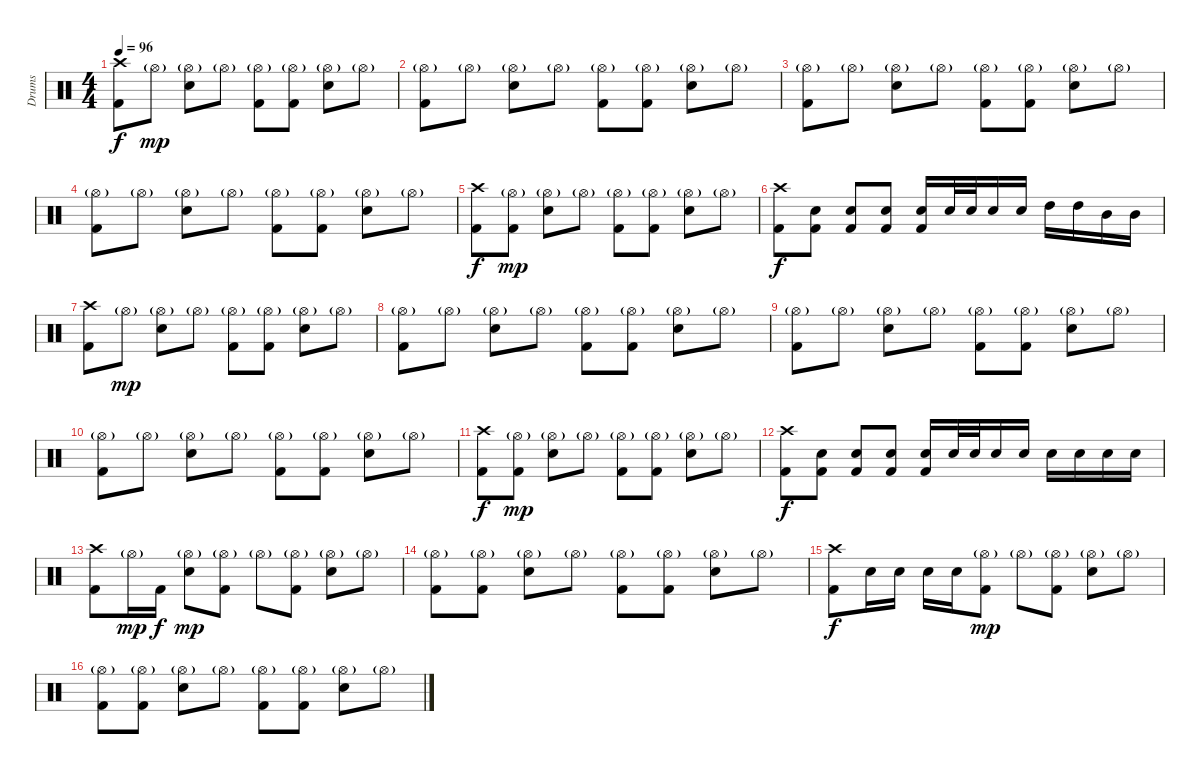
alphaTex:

\track ("Drums" "Drums") {instrument percussion}
\staff {score}
\articulation defaults
\ts (4 4)
\tempo 96
\clef neutral
\ks c
("Crash high (hit)" "Kick (hit) 2").8{dy f} "Hi-Hat (open)"{g}.8{dy mp} ("Hi-Hat (open)"{g} "Electric Snare (hit)").8 "Hi-Hat (open)"{g}.8 ("Hi-Hat (open)"{g} "Kick (hit) 2").8 ("Hi-Hat (open)"{g} "Kick (hit) 2").8 ("Hi-Hat (open)"{g} "Electric Snare (hit)").8 "Hi-Hat (open)"{g}.8 |
("Hi-Hat (open)"{g} "Kick (hit) 2").8 "Hi-Hat (open)"{g}.8 ("Hi-Hat (open)"{g} "Electric Snare (hit)").8 "Hi-Hat (open)"{g}.8 ("Hi-Hat (open)"{g} "Kick (hit) 2").8 ("Hi-Hat (open)"{g} "Kick (hit) 2").8 ("Hi-Hat (open)"{g} "Electric Snare (hit)").8 "Hi-Hat (open)"{g}.8 |
("Hi-Hat (open)"{g} "Kick (hit) 2").8 "Hi-Hat (open)"{g}.8 ("Hi-Hat (open)"{g} "Electric Snare (hit)").8 "Hi-Hat (open)"{g}.8 ("Hi-Hat (open)"{g} "Kick (hit) 2").8 ("Hi-Hat (open)"{g} "Kick (hit) 2").8 ("Hi-Hat (open)"{g} "Electric Snare (hit)").8 "Hi-Hat (open)"{g}.8 |
("Hi-Hat (open)"{g} "Kick (hit) 2").8 "Hi-Hat (open)"{g}.8 ("Hi-Hat (open)"{g} "Electric Snare (hit)").8 "Hi-Hat (open)"{g}.8 ("Hi-Hat (open)"{g} "Kick (hit) 2").8 ("Hi-Hat (open)"{g} "Kick (hit) 2").8 ("Hi-Hat (open)"{g} "Electric Snare (hit)").8 "Hi-Hat (open)"{g}.8 |
("Crash high (hit)" "Kick (hit) 2").8{dy f} ("Hi-Hat (open)"{g} "Kick (hit) 2").8{dy mp} ("Hi-Hat (open)"{g} "Electric Snare (hit)").8 "Hi-Hat (open)"{g}.8 ("Hi-Hat (open)"{g} "Kick (hit) 2").8 ("Hi-Hat (open)"{g} "Kick (hit) 2").8 ("Hi-Hat (open)"{g} "Electric Snare (hit)").8 "Hi-Hat (open)"{g}.8 |
("Crash high (hit)" "Kick (hit) 2").8{dy f} ("Electric Snare (hit)" "Kick (hit) 2").8 ("Electric Snare (hit)" "Kick (hit) 2").8 ("Electric Snare (hit)" "Kick (hit) 2").8 ("Electric Snare (hit)" "Kick (hit) 2").16 "Electric Snare (hit)".32 "Electric Snare (hit)".32 "Electric Snare (hit)".16 "Electric Snare (hit)".16 "High Tom (hit)".16 "High Tom (hit)".16 "Mid Tom (hit)".16 "Mid Tom (hit)".16 |
("Crash high (hit)" "Kick (hit) 2").8 "Hi-Hat (open)"{g}.8{dy mp} ("Hi-Hat (open)"{g} "Electric Snare (hit)").8 "Hi-Hat (open)"{g}.8 ("Hi-Hat (open)"{g} "Kick (hit) 2").8 ("Hi-Hat (open)"{g} "Kick (hit) 2").8 ("Hi-Hat (open)"{g} "Electric Snare (hit)").8 "Hi-Hat (open)"{g}.8 |
("Hi-Hat (open)"{g} "Kick (hit) 2").8 "Hi-Hat (open)"{g}.8 ("Hi-Hat (open)"{g} "Electric Snare (hit)").8 "Hi-Hat (open)"{g}.8 ("Hi-Hat (open)"{g} "Kick (hit) 2").8 ("Hi-Hat (open)"{g} "Kick (hit) 2").8 ("Hi-Hat (open)"{g} "Electric Snare (hit)").8 "Hi-Hat (open)"{g}.8 |
("Hi-Hat (open)"{g} "Kick (hit) 2").8 "Hi-Hat (open)"{g}.8 ("Hi-Hat (open)"{g} "Electric Snare (hit)").8 "Hi-Hat (open)"{g}.8 ("Hi-Hat (open)"{g} "Kick (hit) 2").8 ("Hi-Hat (open)"{g} "Kick (hit) 2").8 ("Hi-Hat (open)"{g} "Electric Snare (hit)").8 "Hi-Hat (open)"{g}.8 |
("Hi-Hat (open)"{g} "Kick (hit) 2").8 "Hi-Hat (open)"{g}.8 ("Hi-Hat (open)"{g} "Electric Snare (hit)").8 "Hi-Hat (open)"{g}.8 ("Hi-Hat (open)"{g} "Kick (hit) 2").8 ("Hi-Hat (open)"{g} "Kick (hit) 2").8 ("Hi-Hat (open)"{g} "Electric Snare (hit)").8 "Hi-Hat (open)"{g}.8 |
("Crash high (hit)" "Kick (hit) 2").8{dy f} ("Hi-Hat (open)"{g} "Kick (hit) 2").8{dy mp} ("Hi-Hat (open)"{g} "Electric Snare (hit)").8 "Hi-Hat (open)"{g}.8 ("Hi-Hat (open)"{g} "Kick (hit) 2").8 ("Hi-Hat (open)"{g} "Kick (hit) 2").8 ("Hi-Hat (open)"{g} "Electric Snare (hit)").8 "Hi-Hat (open)"{g}.8 |
("Crash high (hit)" "Kick (hit) 2").8{dy f} ("Electric Snare (hit)" "Kick (hit) 2").8 ("Electric Snare (hit)" "Kick (hit) 2").8 ("Electric Snare (hit)" "Kick (hit) 2").8 ("Electric Snare (hit)" "Kick (hit) 2").16 "Electric Snare (hit)".32 "Electric Snare (hit)".32 "Electric Snare (hit)".16 "Electric Snare (hit)".16 "Electric Snare (hit)".16 "Electric Snare (hit)".16 "Electric Snare (hit)".16 "Electric Snare (hit)".16 |
("Crash high (hit)" "Kick (hit) 2").8 "Hi-Hat (open)"{g}.16{dy mp} "Kick (hit) 2".16{dy f} ("Hi-Hat (open)"{g} "Electric Snare (hit)").8{dy mp} ("Hi-Hat (open)"{g} "Kick (hit) 2").8 "Hi-Hat (open)"{g}.8 ("Hi-Hat (open)"{g} "Kick (hit) 2").8 ("Hi-Hat (open)"{g} "Electric Snare (hit)").8 "Hi-Hat (open)"{g}.8 |
("Hi-Hat (open)"{g} "Kick (hit) 2").8 ("Hi-Hat (open)"{g} "Kick (hit) 2").8 ("Hi-Hat (open)"{g} "Electric Snare (hit)").8 "Hi-Hat (open)"{g}.8 ("Hi-Hat (open)"{g} "Kick (hit) 2").8 ("Hi-Hat (open)"{g} "Kick (hit) 2").8 ("Hi-Hat (open)"{g} "Electric Snare (hit)").8 "Hi-Hat (open)"{g}.8 |
("Crash high (hit)" "Kick (hit) 2").8{dy f} "Electric Snare (hit)".16 "Electric Snare (hit)".16 "Electric Snare (hit)".16 "Electric Snare (hit)".16 ("Hi-Hat (open)"{g} "Kick (hit) 2").8{dy mp} "Hi-Hat (open)"{g}.8 ("Hi-Hat (open)"{g} "Kick (hit) 2").8 ("Hi-Hat (open)"{g} "Electric Snare (hit)").8 "Hi-Hat (open)"{g}.8 |
("Hi-Hat (open)"{g} "Kick (hit) 2").8 ("Hi-Hat (open)"{g} "Kick (hit) 2").8 ("Hi-Hat (open)"{g} "Electric Snare (hit)").8 "Hi-Hat (open)"{g}.8 ("Hi-Hat (open)"{g} "Kick (hit) 2").8 ("Hi-Hat (open)"{g} "Kick (hit) 2").8 ("Hi-Hat (open)"{g} "Electric Snare (hit)").8 "Hi-Hat (open)"{g}.8
